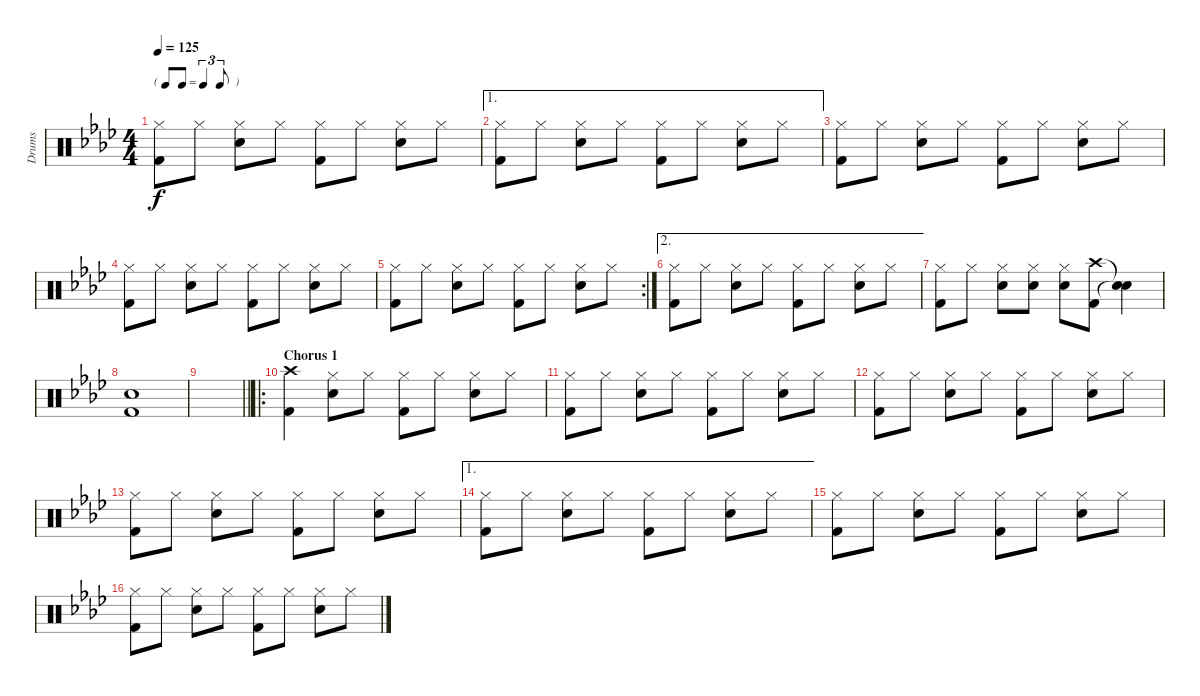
\track ("Drums" "Drums") {instrument percussion}
\staff {score}
\articulation defaults
\ts (4 4)
\tf triplet8th
\tempo 125
\clef neutral
\ks ab
("Hi-Hat (closed)" "Kick (hit) 2").8{dy f} "Hi-Hat (closed)".8 ("Hi-Hat (closed)" "Electric Snare (hit)").8 "Hi-Hat (closed)".8 ("Hi-Hat (closed)" "Kick (hit) 2").8 "Hi-Hat (closed)".8 ("Hi-Hat (closed)" "Electric Snare (hit)").8 "Hi-Hat (closed)".8 |
\ae 1
("Hi-Hat (closed)" "Kick (hit) 2").8 "Hi-Hat (closed)".8 ("Hi-Hat (closed)" "Electric Snare (hit)").8 "Hi-Hat (closed)".8 ("Hi-Hat (closed)" "Kick (hit) 2").8 "Hi-Hat (closed)".8 ("Hi-Hat (closed)" "Electric Snare (hit)").8 "Hi-Hat (closed)".8 |
("Hi-Hat (closed)" "Kick (hit) 2").8 "Hi-Hat (closed)".8 ("Hi-Hat (closed)" "Electric Snare (hit)").8 "Hi-Hat (closed)".8 ("Hi-Hat (closed)" "Kick (hit) 2").8 "Hi-Hat (closed)".8 ("Hi-Hat (closed)" "Electric Snare (hit)").8 "Hi-Hat (closed)".8 |
("Hi-Hat (closed)" "Kick (hit) 2").8 "Hi-Hat (closed)".8 ("Hi-Hat (closed)" "Electric Snare (hit)").8 "Hi-Hat (closed)".8 ("Hi-Hat (closed)" "Kick (hit) 2").8 "Hi-Hat (closed)".8 ("Hi-Hat (closed)" "Electric Snare (hit)").8 "Hi-Hat (closed)".8 |
\rc 2
("Hi-Hat (closed)" "Kick (hit) 2").8 "Hi-Hat (closed)".8 ("Hi-Hat (closed)" "Electric Snare (hit)").8 "Hi-Hat (closed)".8 ("Hi-Hat (closed)" "Kick (hit) 2").8 "Hi-Hat (closed)".8 ("Hi-Hat (closed)" "Electric Snare (hit)").8 "Hi-Hat (closed)".8 |
\ae 2
("Hi-Hat (closed)" "Kick (hit) 2").8 "Hi-Hat (closed)".8 ("Hi-Hat (closed)" "Electric Snare (hit)").8 "Hi-Hat (closed)".8 ("Hi-Hat (closed)" "Kick (hit) 2").8 "Hi-Hat (closed)".8 ("Hi-Hat (closed)" "Electric Snare (hit)").8 "Hi-Hat (closed)".8 |
("Hi-Hat (closed)" "Kick (hit) 2").8 "Hi-Hat (closed)".8 ("Hi-Hat (closed)" "Electric Snare (hit)").8 ("Hi-Hat (closed)" "Electric Snare (hit)").8 ("Hi-Hat (closed)" "Electric Snare (hit)").8 ("Crash high (hit)" "Kick (hit) 2").8 ("Snare (hit)"{t} "Snare (hit)"{t}).4 |
("Electric Snare (hit)" "Kick (hit) 2").1 |
\barLineRight lightlight
|
\ro
\section ("" "Chorus 1")
("Crash high (hit)" "Kick (hit) 2").4 ("Hi-Hat (closed)" "Electric Snare (hit)").8 "Hi-Hat (closed)".8 ("Hi-Hat (closed)" "Kick (hit) 2").8 "Hi-Hat (closed)".8 ("Hi-Hat (closed)" "Electric Snare (hit)").8 "Hi-Hat (closed)".8 |
("Hi-Hat (closed)" "Kick (hit) 2").8 "Hi-Hat (closed)".8 ("Hi-Hat (closed)" "Electric Snare (hit)").8 "Hi-Hat (closed)".8 ("Hi-Hat (closed)" "Kick (hit) 2").8 "Hi-Hat (closed)".8 ("Hi-Hat (closed)" "Electric Snare (hit)").8 "Hi-Hat (closed)".8 |
("Hi-Hat (closed)" "Kick (hit) 2").8 "Hi-Hat (closed)".8 ("Hi-Hat (closed)" "Electric Snare (hit)").8 "Hi-Hat (closed)".8 ("Hi-Hat (closed)" "Kick (hit) 2").8 "Hi-Hat (closed)".8 ("Hi-Hat (closed)" "Electric Snare (hit)").8 "Hi-Hat (closed)".8 |
("Hi-Hat (closed)" "Kick (hit) 2").8 "Hi-Hat (closed)".8 ("Hi-Hat (closed)" "Electric Snare (hit)").8 "Hi-Hat (closed)".8 ("Hi-Hat (closed)" "Kick (hit) 2").8 "Hi-Hat (closed)".8 ("Hi-Hat (closed)" "Electric Snare (hit)").8 "Hi-Hat (closed)".8 |
\ae 1
("Hi-Hat (closed)" "Kick (hit) 2").8 "Hi-Hat (closed)".8 ("Hi-Hat (closed)" "Electric Snare (hit)").8 "Hi-Hat (closed)".8 ("Hi-Hat (closed)" "Kick (hit) 2").8 "Hi-Hat (closed)".8 ("Hi-Hat (closed)" "Electric Snare (hit)").8 "Hi-Hat (closed)".8 |
("Hi-Hat (closed)" "Kick (hit) 2").8 "Hi-Hat (closed)".8 ("Hi-Hat (closed)" "Electric Snare (hit)").8 "Hi-Hat (closed)".8 ("Hi-Hat (closed)" "Kick (hit) 2").8 "Hi-Hat (closed)".8 ("Hi-Hat (closed)" "Electric Snare (hit)").8 "Hi-Hat (closed)".8 |
("Hi-Hat (closed)" "Kick (hit) 2").8 "Hi-Hat (closed)".8 ("Hi-Hat (closed)" "Electric Snare (hit)").8 "Hi-Hat (closed)".8 ("Hi-Hat (closed)" "Kick (hit) 2").8 "Hi-Hat (closed)".8 ("Hi-Hat (closed)" "Electric Snare (hit)").8 "Hi-Hat (closed)".8
